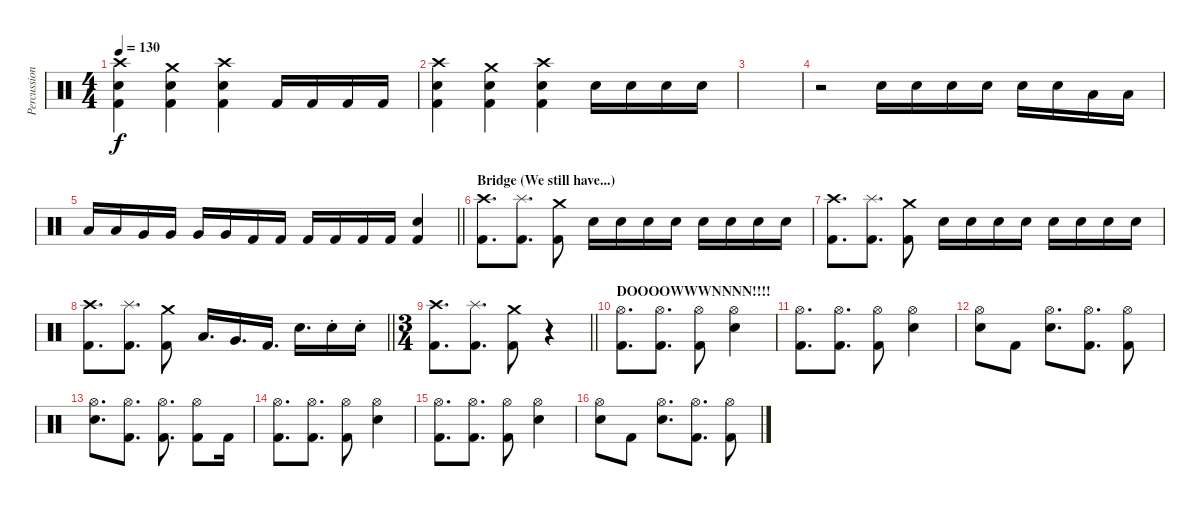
\track ("Percussion" "Percussion") {instrument percussion}
\staff {score}
\articulation defaults
\ts (4 4)
\tempo 130
\clef neutral
\ks c
("Crash high (hit)" "Snare (hit) 2" "Kick (hit) 2").4{dy f} ("Crash medium (hit)" "Snare (hit) 2" "Kick (hit) 2").4 ("Crash high (hit)" "Snare (hit) 2" "Kick (hit) 2").4 "Kick (hit) 2".16 "Kick (hit) 2".16 "Kick (hit) 2".16 "Kick (hit) 2".16 |
("Crash high (hit)" "Snare (hit) 2" "Kick (hit) 2").4 ("Crash medium (hit)" "Snare (hit) 2" "Kick (hit) 2").4 ("Crash high (hit)" "Snare (hit) 2" "Kick (hit) 2").4 "Snare (hit) 2".16 "Snare (hit) 2".16 "Snare (hit) 2".16 "Snare (hit) 2".16 |
|
r.2 "Snare (hit) 2".16 "Snare (hit) 2".16 "Snare (hit) 2".16 "Snare (hit) 2".16 "Snare (hit) 2".16 "Snare (hit) 2".16 "Low Tom (hit)".16 "Low Tom (hit)".16 |
\barLineRight lightlight "Low Tom (hit)".16 "Low Tom (hit)".16 "Very Low Tom (hit)".16 "Very Low Tom (hit)".16 "Very Low Tom (hit)".16 "Very Low Tom (hit)".16 "Kick (hit) 2".16 "Kick (hit) 2".16 "Kick (hit) 2".16 "Kick (hit) 2".16 "Kick (hit) 2".16 "Kick (hit) 2".16
("Snare (hit) 2" "Kick (hit) 2").4 |
\section ("" "Bridge (We still have...)")
("Crash high (hit)" "Kick (hit) 2").8{d} ("Splash (hit)" "Kick (hit) 2").8{d} ("Crash medium (hit)" "Kick (hit) 2").8 "Snare (hit) 2".16 "Snare (hit) 2".16 "Snare (hit) 2".16 "Snare (hit) 2".16 "Snare (hit) 2".16 "Snare (hit) 2".16 "Snare (hit) 2".16 "Snare (hit) 2".16 |
("Crash high (hit)" "Kick (hit) 2").8{d} ("Splash (hit)" "Kick (hit) 2").8{d} ("Crash medium (hit)" "Kick (hit) 2").8 "Snare (hit) 2".16 "Snare (hit) 2".16 "Snare (hit) 2".16 "Snare (hit) 2".16 "Snare (hit) 2".16 "Snare (hit) 2".16 "Snare (hit) 2".16 "Snare (hit) 2".16 |
\barLineRight lightlight
("Crash high (hit)" "Kick (hit) 2").8{d} ("Splash (hit)" "Kick (hit) 2").8{d} ("Crash medium (hit)" "Kick (hit) 2").8 "Low Tom (hit)".16{d} "Very Low Tom (hit)".16{d} "Kick (hit) 2".16{d} "Snare (hit) 2".16{d} "Snare (hit) 2"{st}.16 "Snare (hit) 2"{st}.16 |
\ts (3 4)
\section ("" "")
\barLineRight lightlight
("Crash high (hit)" "Kick (hit) 2").8{d} ("Splash (hit)" "Kick (hit) 2").8{d} ("Crash medium (hit)" "Kick (hit) 2").8 r.4 |
\section ("" "DOOOOWWWNNNN!!!!")
("Hi-Hat (open)" "Kick (hit) 2").8{d} ("Hi-Hat (open)" "Kick (hit) 2").8{d} ("Hi-Hat (open)" "Kick (hit) 2").8 ("Hi-Hat (open)" "Snare (hit) 2").4 |
("Hi-Hat (open)" "Kick (hit) 2").8{d} ("Hi-Hat (open)" "Kick (hit) 2").8{d} ("Hi-Hat (open)" "Kick (hit) 2").8 ("Hi-Hat (open)" "Snare (hit) 2").4 |
("Hi-Hat (open)" "Snare (hit) 2").8 "Kick (hit) 2".8 ("Hi-Hat (open)" "Snare (hit) 2").8{d} ("Hi-Hat (open)" "Kick (hit) 2").8{d} ("Hi-Hat (open)" "Kick (hit) 2").8 |
("Hi-Hat (open)" "Snare (hit) 2").8{d} ("Hi-Hat (open)" "Kick (hit) 2").8{d} ("Hi-Hat (open)" "Kick (hit) 2").8{d} ("Hi-Hat (open)" "Kick (hit) 2").8 "Kick (hit) 2".16 |
("Hi-Hat (open)" "Kick (hit) 2").8{d} ("Hi-Hat (open)" "Kick (hit) 2").8{d} ("Hi-Hat (open)" "Kick (hit) 2").8 ("Hi-Hat (open)" "Snare (hit) 2").4 |
("Hi-Hat (open)" "Kick (hit) 2").8{d} ("Hi-Hat (open)" "Kick (hit) 2").8{d} ("Hi-Hat (open)" "Kick (hit) 2").8 ("Hi-Hat (open)" "Snare (hit) 2").4 |
("Hi-Hat (open)" "Snare (hit) 2").8 "Kick (hit) 2".8 ("Hi-Hat (open)" "Snare (hit) 2").8{d} ("Hi-Hat (open)" "Kick (hit) 2").8{d} ("Hi-Hat (open)" "Kick (hit) 2").8
